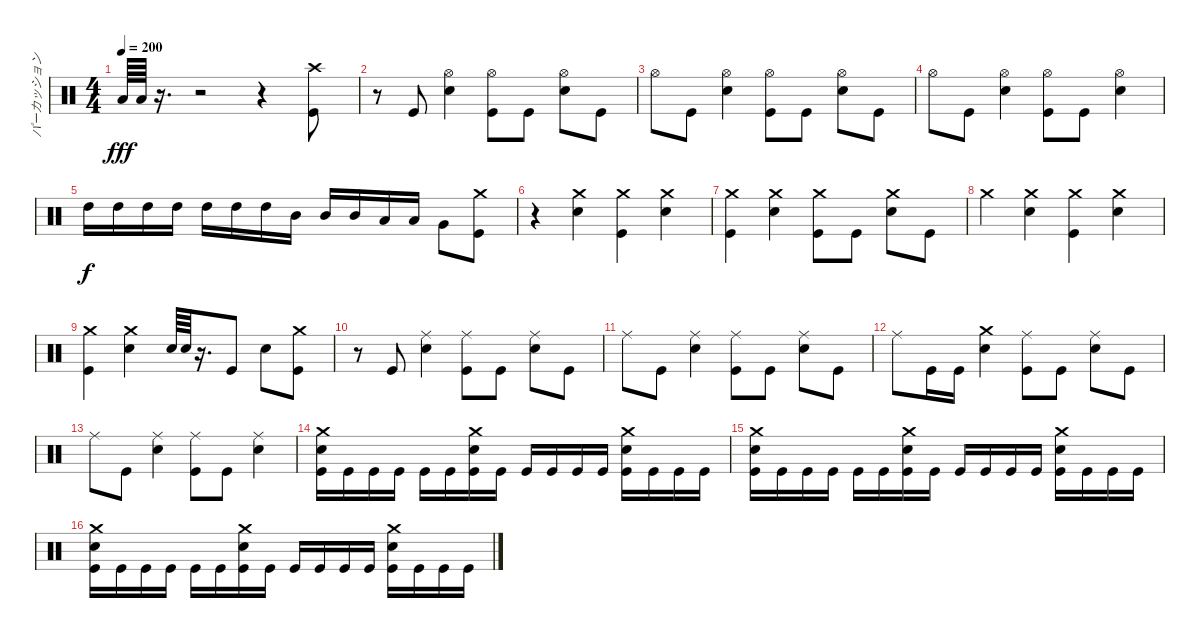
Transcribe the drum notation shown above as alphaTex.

\track ("パーカッション" "パーカッション") {instrument percussion}
\staff {score}
\articulation defaults
\ts (4 4)
\tempo 200
\clef neutral
\ks c "Low Floor Tom (hit)".64{dy fff} "Low Floor Tom (hit)".64
r.16{d} r.2 r.4 ("Crash high (hit)" "Kick (hit)").8 |
r.8 "Kick (hit)".8 ("Hi-Hat (open)" "Snare (hit) 2").4 ("Hi-Hat (open)" "Kick (hit)").8 "Kick (hit)".8 ("Snare (hit) 2" "Hi-Hat (open)").8 "Kick (hit)".8 |
"Hi-Hat (open)".8 "Kick (hit)".8 ("Hi-Hat (open)" "Snare (hit) 2").4 ("Hi-Hat (open)" "Kick (hit)").8 "Kick (hit)".8 ("Snare (hit) 2" "Hi-Hat (open)").8 "Kick (hit)".8 |
"Hi-Hat (open)".8 "Kick (hit)".8 ("Hi-Hat (open)" "Snare (hit) 2").4 ("Hi-Hat (open)" "Kick (hit)").8 "Kick (hit)".8 ("Snare (hit) 2" "Hi-Hat (open)").4 |
"High Tom (hit)".16{dy f} "High Tom (hit)".16 "High Tom (hit)".16 "High Tom (hit)".16 "High Tom (hit)".16 "High Tom (hit)".16 "High Tom (hit)".16 "Mid Tom (hit)".16 "Mid Tom (hit)".16 "Mid Tom (hit)".16 "Low Tom (hit)".16 "Low Tom (hit)".16 "Very Low Tom (hit)".8 ("Crash medium (hit)" "Kick (hit)").8 |
r.4 ("Crash medium (hit)" "Snare (hit) 2").4 ("Crash medium (hit)" "Kick (hit)").4 ("Crash medium (hit)" "Snare (hit) 2").4 |
("Crash medium (hit)" "Kick (hit)").4 ("Snare (hit) 2" "Crash medium (hit)").4 ("Kick (hit)" "Crash medium (hit)").8 "Kick (hit)".8 ("Snare (hit) 2" "Crash medium (hit)").8 "Kick (hit)".8 |
"Crash medium (hit)".4 ("Snare (hit) 2" "Crash medium (hit)").4 ("Crash medium (hit)" "Kick (hit)").4 ("Snare (hit) 2" "Crash medium (hit)").4 |
("Crash medium (hit)" "Kick (hit)").4 ("Snare (hit) 2" "Crash medium (hit)").4 "Snare (hit) 2".64 "Snare (hit) 2".64 r.16{d} "Kick (hit)".8 "Snare (hit) 2".8 ("Crash medium (hit)" "Kick (hit)").8 |
r.8 "Kick (hit)".8 ("Ride (middle)" "Snare (hit) 2").4 ("Ride (middle)" "Kick (hit)").8 "Kick (hit)".8 ("Ride (middle)" "Snare (hit) 2").8 "Kick (hit)".8 |
"Ride (middle)".8 "Kick (hit)".8 ("Snare (hit) 2" "Ride (middle)").4 ("Ride (middle)" "Kick (hit)").8 "Kick (hit)".8 ("Ride (middle)" "Snare (hit) 2").8 "Kick (hit)".8 |
"Ride (middle)".8 "Kick (hit)".16 "Kick (hit)".16 ("Snare (hit) 2" "Crash medium (hit)").4 ("Ride (middle)" "Kick (hit)").8 "Kick (hit)".8 ("Snare (hit) 2" "Ride (middle)").8 "Kick (hit)".8 |
"Ride (middle)".8 "Kick (hit)".8 ("Snare (hit) 2" "Ride (middle)").4 ("Ride (middle)" "Kick (hit)").8 "Kick (hit)".8 ("Ride (middle)" "Snare (hit) 2").4 |
("Kick (hit)" "Snare (hit) 2" "Crash medium (hit)").16 "Kick (hit)".16 "Kick (hit)".16 "Kick (hit)".16 "Kick (hit)".16 "Kick (hit)".16 ("Kick (hit)" "Snare (hit) 2" "Crash medium (hit)").16 "Kick (hit)".16 "Kick (hit)".16 "Kick (hit)".16 "Kick (hit)".16 "Kick (hit)".16 ("Kick (hit)" "Snare (hit) 2" "Crash medium (hit)").16 "Kick (hit)".16 "Kick (hit)".16 "Kick (hit)".16 |
("Kick (hit)" "Snare (hit) 2" "Crash medium (hit)").16 "Kick (hit)".16 "Kick (hit)".16 "Kick (hit)".16 "Kick (hit)".16 "Kick (hit)".16 ("Kick (hit)" "Snare (hit) 2" "Crash medium (hit)").16 "Kick (hit)".16 "Kick (hit)".16 "Kick (hit)".16 "Kick (hit)".16 "Kick (hit)".16 ("Kick (hit)" "Snare (hit) 2" "Crash medium (hit)").16 "Kick (hit)".16 "Kick (hit)".16 "Kick (hit)".16 |
("Kick (hit)" "Snare (hit) 2" "Crash medium (hit)").16 "Kick (hit)".16 "Kick (hit)".16 "Kick (hit)".16 "Kick (hit)".16 "Kick (hit)".16 ("Kick (hit)" "Snare (hit) 2" "Crash medium (hit)").16 "Kick (hit)".16 "Kick (hit)".16 "Kick (hit)".16 "Kick (hit)".16 "Kick (hit)".16 ("Kick (hit)" "Snare (hit) 2" "Crash medium (hit)").16 "Kick (hit)".16 "Kick (hit)".16 "Kick (hit)".16
